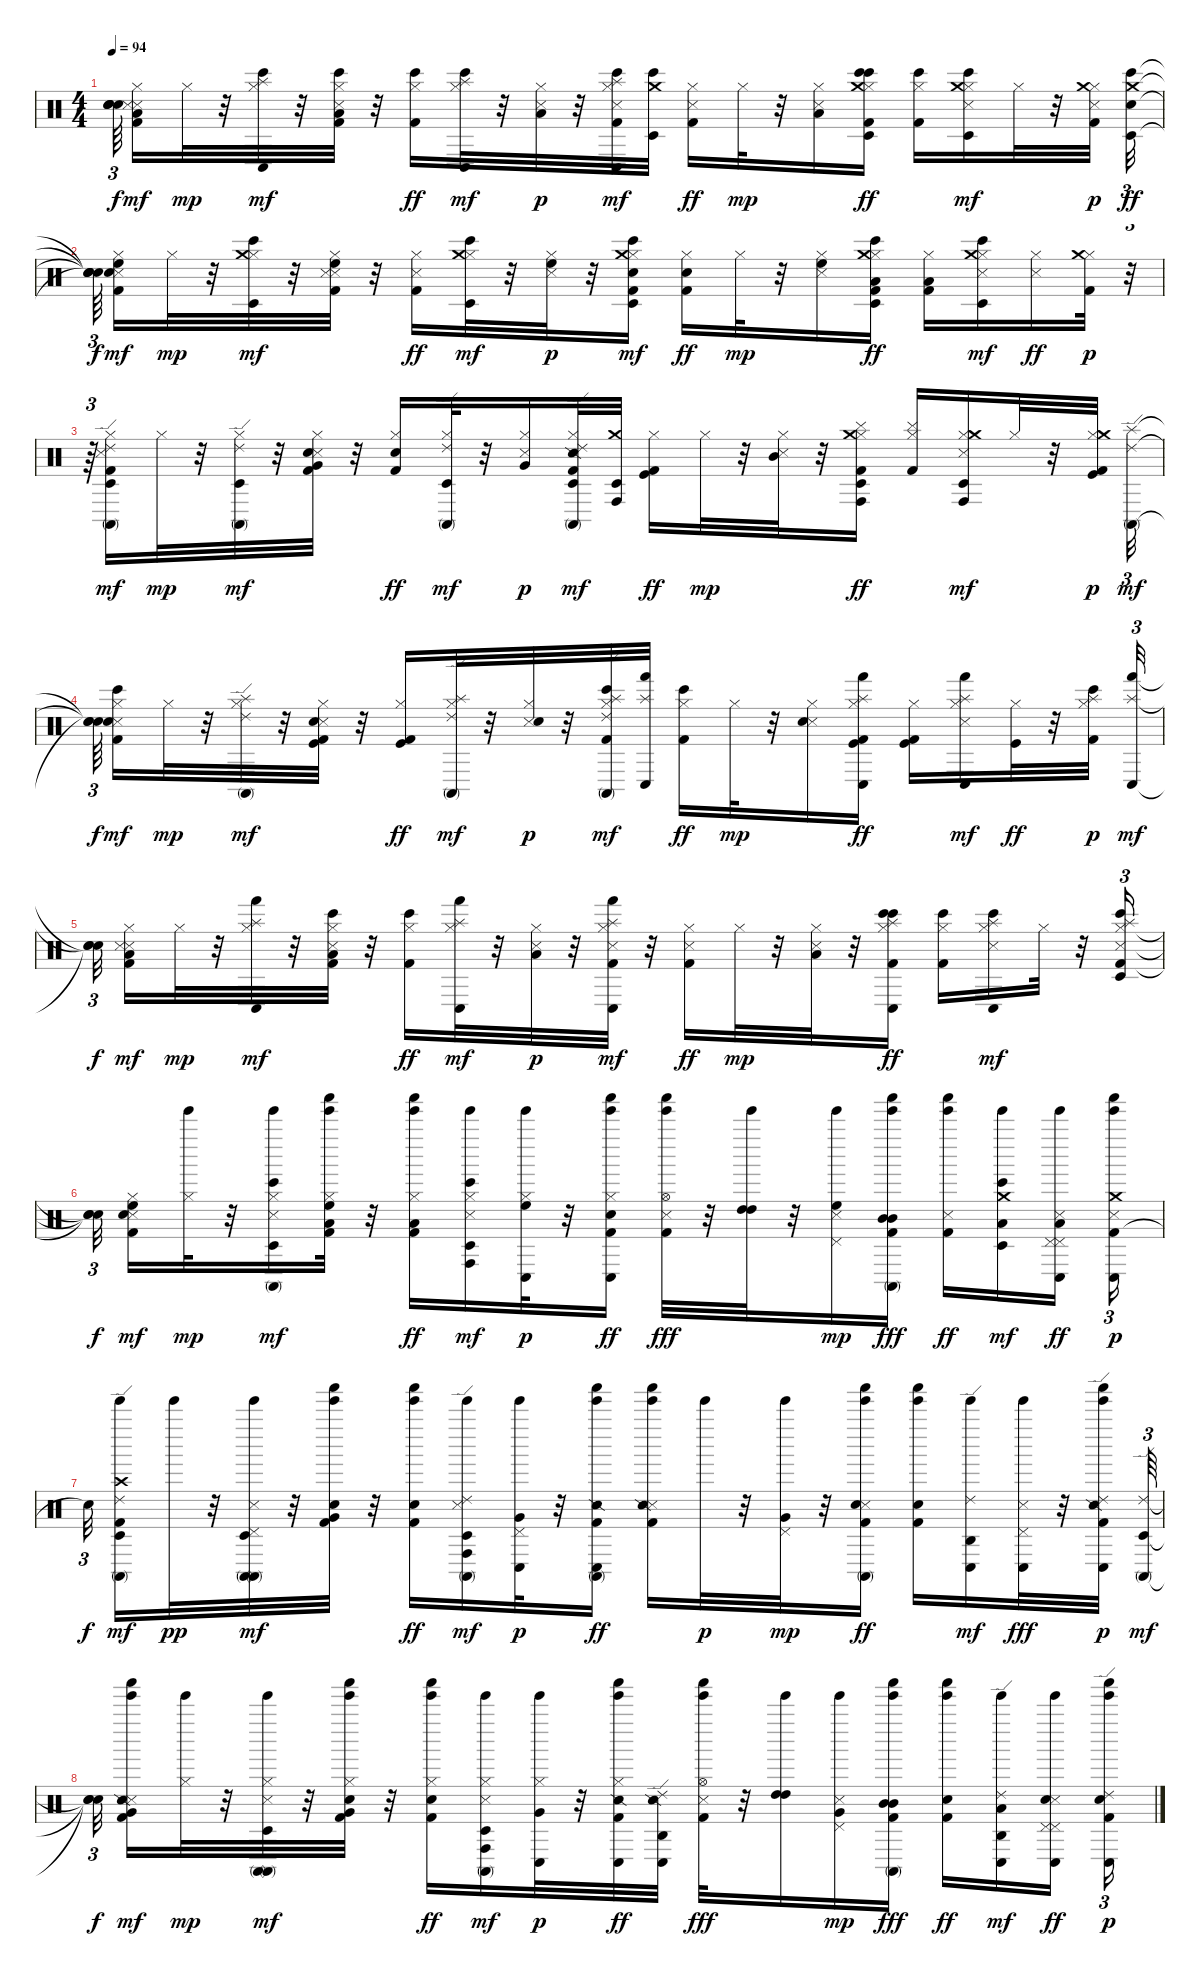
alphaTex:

\track "" {instrument percussion}
\staff {score}
\articulation defaults
\ts (4 4)
\tempo 94
\clef neutral
\ks c
("Snare (hit)"{t} "Snare (hit)"{t} "Snare (hit)"{t} "Snare (hit)"{t}).64{tu (3 2) dy f beam splitsecondary} ("Kick (hit) 2" "Snare (side stick) 3" "Hi-Hat (closed)" "Metronome (hit)" "Low Tom (hit)").16{dy mf} "Hi-Hat (closed)".32{dy mp} r.32 ("Hi-Hat (closed)" "Bongo High (hit)" "Conga low (hit)" "Splash (hit)").32{dy mf} r.32 ("Kick (hit) 2" "Snare (side stick) 3" "Hi-Hat (closed)" "Bongo High (hit)" "Low Tom (hit)").32 r.32 ("Kick (hit) 2" "Hi-Hat (closed)" "Bongo High (hit)").16{dy ff} ("Hi-Hat (closed)" "Conga low (hit)" "Bongo High (hit)" "Splash (hit)").32{dy mf} r.32 ("Snare (side stick) 3" "Hi-Hat (closed)" "Low Tom (hit)").32{dy p} r.32 ("Kick (hit) 2" "Hi-Hat (closed)" "Metronome (hit)" "Bongo High (hit)" "Splash (hit)" "Conga low (hit)").32{dy mf volume 7} ("Bongo High (hit)" "Timbale low (hit)" "Crash medium (hit)").32{volume 6} ("Kick (hit) 2" "Hi-Hat (closed)" "Metronome (hit)").16{dy ff} "Hi-Hat (closed)".32{dy mp} r.32 ("Snare (side stick) 3" "Hi-Hat (closed)" "Low Tom (hit)").16 ("Kick (hit) 2" "Hi-Hat (closed)" "Bongo High (hit)" "Timbale low (hit)" "Crash medium (hit)" "Bongo High (hit)").16{dy ff} ("Kick (hit) 2" "Hi-Hat (closed)" "Bongo High (hit)").16 ("Snare (side stick) 3" "Hi-Hat (closed)" "Bongo High (hit)" "Crash medium (hit)" "Timbale low (hit)").16{dy mf} "Hi-Hat (closed)".32 r.32 ("Kick (hit) 2" "Hi-Hat (closed)" "Metronome (hit)" "Crash medium (hit)").32{dy p volume 7} ("Bongo High (hit)" "Timbale low (hit)" "Crash medium (hit)" "Snare (hit) 2").32{tu (3 2) dy ff volume 6} |
("Snare (hit)"{t} "Snare (hit)"{t} "Snare (hit)"{t} "Snare (hit)"{t}).64{tu (3 2) dy f beam splitsecondary} ("Kick (hit) 2" "Snare (side stick) 3" "Hi-Hat (closed)" "Snare (hit) 2" "High Floor Tom (hit)").16{dy mf} "Hi-Hat (closed)".32{dy mp} r.32 ("Hi-Hat (closed)" "Bongo High (hit)" "Timbale low (hit)" "Crash medium (hit)").32{dy mf} r.32 ("Kick (hit) 2" "Snare (side stick) 3" "Hi-Hat (closed)" "Metronome (hit)" "High Floor Tom (hit)").32 r.32 ("Kick (hit) 2" "Hi-Hat (closed)" "Metronome (hit)").16{dy ff} ("Hi-Hat (closed)" "Timbale low (hit)" "Bongo High (hit)" "Crash medium (hit)").32{dy mf} r.32 ("Snare (side stick) 3" "Hi-Hat (closed)" "High Floor Tom (hit)").32{dy p} r.32 ("Kick (hit) 2" "Hi-Hat (closed)" "Snare (hit) 2" "Bongo High (hit)" "Crash medium (hit)" "Timbale low (hit)").16{dy mf} ("Kick (hit) 2" "Hi-Hat (closed)" "Snare (hit) 2").16{dy ff} "Hi-Hat (closed)".32{dy mp} r.32 ("Snare (side stick) 3" "Hi-Hat (closed)" "High Floor Tom (hit)").16 ("Kick (hit) 2" "Hi-Hat (closed)" "Low Tom (hit)" "Timbale low (hit)" "Crash medium (hit)" "Bongo High (hit)").16{dy ff} ("Kick (hit) 2" "Hi-Hat (closed)" "Low Tom (hit)").16 ("Snare (side stick) 3" "Hi-Hat (closed)" "Bongo High (hit)" "Crash medium (hit)" "Timbale low (hit)").16{dy mf} ("Hi-Hat (closed)" "Metronome (hit)").16{dy ff} ("Kick (hit) 2" "Hi-Hat (closed)" "Crash medium (hit)").32{dy p} r.32{tu (3 2)} |
r.64{tu (3 2)} ("Conga high (mute)" "Timbale low (hit)" "Ride (edge) 2" "Kick (hit) 2" "Snare (side stick) 3" "Hi-Hat (closed)").16{dy mf volume 6} "Hi-Hat (closed)".32{dy mp} r.32 ("Hi-Hat (closed)" "Conga high (mute)" "Timbale low (hit)" "Ride (edge) 2").32{dy mf} r.32 ("Kick (hit) 2" "Snare (side stick) 3" "Hi-Hat (closed)" "Snare (hit) 2" "Very Low Tom (hit)").32 r.32 ("Kick (hit) 2" "Hi-Hat (closed)" "Snare (hit) 2").16{dy ff} ("Hi-Hat (closed)" "Timbale low (hit)" "Conga high (mute)" "Ride (edge) 2").32{dy mf} r.32 ("Snare (side stick) 3" "Hi-Hat (closed)" "Very Low Tom (hit)").16{dy p} ("Kick (hit) 2" "Hi-Hat (closed)" "Snare (side stick) 2" "Conga high (mute)" "Ride (edge) 2" "Timbale low (hit)").32{dy mf} ("Conga high (hit)" "Timbale low (hit)" "Crash medium (hit)").32{volume 6} ("Kick (hit) 2" "Hi-Hat (closed)" "Kick (hit)").16{dy ff} "Hi-Hat (closed)".32{dy mp} r.32 ("Snare (side stick) 3" "Hi-Hat (closed)" "Mid Tom (hit)").32 r.32 ("Kick (hit) 2" "Hi-Hat (closed)" "Cymbal (hit)" "Timbale low (hit)" "Crash medium (hit)" "Conga high (hit)").16{dy ff} ("Kick (hit) 2" "Hi-Hat (closed)" "Cymbal (hit)").16 ("Snare (side stick) 3" "Hi-Hat (closed)" "Conga high (hit)" "Crash medium (hit)" "Timbale low (hit)").16{dy mf} "Hi-Hat (closed)".32 r.32 ("Kick (hit) 2" "Hi-Hat (closed)" "Kick (hit)" "Crash medium (hit)").32{dy p volume 7} ("Ride (edge) 2" "Conga high (mute)" "Splash (hit)").32{tu (3 2) dy mf volume 6} |
("Snare (hit)"{t} "Snare (hit)"{t} "Snare (hit)"{t}).64{tu (3 2) dy f beam splitsecondary} ("Kick (hit) 2" "Snare (side stick) 3" "Hi-Hat (closed)" "Bongo High (hit)" "Electric Snare (hit)").16{dy mf} "Hi-Hat (closed)".32{dy mp} r.32 ("Hi-Hat (closed)" "Ride (edge) 2" "Conga high (mute)" "Splash (hit)").32{dy mf} r.32 ("Kick (hit) 2" "Snare (side stick) 3" "Hi-Hat (closed)" "Kick (hit)" "Electric Snare (hit)").32 r.32 ("Kick (hit) 2" "Hi-Hat (closed)" "Kick (hit)").16{dy ff} ("Hi-Hat (closed)" "Conga high (mute)" "Ride (edge) 2" "Splash (hit)").32{dy mf} r.32 ("Snare (side stick) 3" "Hi-Hat (closed)" "Electric Snare (hit)").32{dy p} r.32 ("Kick (hit) 2" "Hi-Hat (closed)" "Bongo High (hit)" "Ride (edge) 2" "Splash (hit)" "Conga high (mute)").32{dy mf volume 7} ("Hand (hit)" "Conga low (hit)" "Splash (hit)").32{volume 6} ("Kick (hit) 2" "Hi-Hat (closed)" "Bongo High (hit)").16{dy ff} "Hi-Hat (closed)".32{dy mp} r.32 ("Snare (side stick) 3" "Hi-Hat (closed)" "Electric Snare (hit)").16 ("Kick (hit) 2" "Hi-Hat (closed)" "Kick (hit)" "Conga low (hit)" "Splash (hit)" "Hand (hit)").16{dy ff} ("Kick (hit) 2" "Hi-Hat (closed)" "Kick (hit)").16 ("Snare (side stick) 3" "Hi-Hat (closed)" "Hand (hit)" "Splash (hit)" "Conga low (hit)").16{dy mf} ("Hi-Hat (closed)" "Kick (hit)").32{dy ff} r.32 ("Kick (hit) 2" "Hi-Hat (closed)" "Bongo High (hit)" "Splash (hit)").32{dy p volume 7} ("Hand (hit)" "Conga low (hit)" "Splash (hit)").32{tu (3 2) dy mf volume 6} |
("Snare (hit)"{t} "Snare (hit)"{t} "Snare (hit)"{t}).32{tu (3 2) dy f beam splitsecondary} ("Kick (hit) 2" "Snare (side stick) 3" "Hi-Hat (closed)" "Metronome (hit)" "Low Tom (hit)").16{dy mf} "Hi-Hat (closed)".32{dy mp} r.32 ("Hi-Hat (closed)" "Hand (hit)" "Conga low (hit)" "Splash (hit)").32{dy mf} r.32 ("Kick (hit) 2" "Snare (side stick) 3" "Hi-Hat (closed)" "Bongo High (hit)" "Low Tom (hit)").32 r.32 ("Kick (hit) 2" "Hi-Hat (closed)" "Bongo High (hit)").16{dy ff} ("Hi-Hat (closed)" "Conga low (hit)" "Hand (hit)" "Splash (hit)").32{dy mf} r.32 ("Snare (side stick) 3" "Hi-Hat (closed)" "Low Tom (hit)").32{dy p} r.32 ("Kick (hit) 2" "Hi-Hat (closed)" "Metronome (hit)" "Hand (hit)" "Splash (hit)" "Conga low (hit)").32{dy mf volume 7} r.32 ("Kick (hit) 2" "Hi-Hat (closed)" "Metronome (hit)").16{dy ff} "Hi-Hat (closed)".32{dy mp} r.32 ("Snare (side stick) 3" "Hi-Hat (closed)" "Low Tom (hit)").32 r.32 ("Kick (hit) 2" "Hi-Hat (closed)" "Bongo High (hit)" "Conga low (hit)" "Splash (hit)" "Bongo High (hit)").16{dy ff} ("Kick (hit) 2" "Hi-Hat (closed)" "Bongo High (hit)").16 ("Snare (side stick) 3" "Hi-Hat (closed)" "Bongo High (hit)" "Splash (hit)" "Conga low (hit)").16{dy mf} "Hi-Hat (closed)".32 r.32 ("Kick (hit) 2" "Hi-Hat (closed)" "Metronome (hit)" "Splash (hit)" "Bongo High (hit)" "Timbale low (hit)").16{tu (3 2)} |
("Snare (hit)"{t} "Snare (hit)"{t} "Snare (hit)"{t}).32{tu (3 2) dy f beam splitsecondary} ("Kick (hit) 2" "Snare (side stick) 3" "Hi-Hat (closed)" "Snare (hit) 2" "High Floor Tom (hit)").16{dy mf} ("Tinkle Bell (hit)" "Hi-Hat (closed)").32{dy mp} r.32 ("Tinkle Bell (hit)" "Conga high (mute)" "Snare (side stick) 3" "Hi-Hat (closed)" "Bongo High (hit)" "Timbale low (hit)").16{dy mf} ("Kick (hit) 2" "Hi-Hat (closed)" "Tinkle Bell (hit)" "Shaker (hit)" "Low Tom (hit)" "High Floor Tom (hit)").32 r.32 ("Kick (hit) 2" "Hi-Hat (closed)" "Tinkle Bell (hit)" "Shaker (hit)" "Low Tom (hit)").16{dy ff} ("Tinkle Bell (hit)" "Conga high (hit)" "Snare (side stick) 3" "Hi-Hat (closed)" "Timbale low (hit)" "Bongo High (hit)").16{dy mf} ("Tinkle Bell (hit)" "Conga low (hit)" "Hi-Hat (closed)" "High Floor Tom (hit)").32{dy p} r.32 ("Kick (hit) 2" "Conga low (hit)" "Hi-Hat (closed)" "Tinkle Bell (hit)" "Shaker (hit)" "Snare (hit) 2").16{dy ff} ("Kick (hit) 2" "Snare (side stick) 3" "Tinkle Bell (hit)" "Shaker (hit)" "Hi-Hat (open)").32{dy fff} r.32 ("Tinkle Bell (hit)" "High Tom (hit)" "High Tom (hit)").32 r.32 ("Tinkle Bell (hit)" "Pedal Hi-Hat (hit)" "Snare (side stick) 3" "High Floor Tom (hit)").16{dy mp} ("Conga high (mute)" "Kick (hit) 2" "Tinkle Bell (hit)" "Shaker (hit)" "Mid Tom (hit)" "Mid Tom (hit)").16{dy fff} ("Kick (hit) 2" "Tinkle Bell (hit)" "Shaker (hit)" "Metronome (hit)").16{dy ff} ("Tinkle Bell (hit)" "Low Tom (hit)" "Bongo High (hit)" "Crash medium (hit)" "Timbale low (hit)").16{dy mf} ("Tinkle Bell (hit)" "Conga low (hit)" "Pedal Hi-Hat (hit)" "Snare (side stick) 3" "Pedal Hi-Hat (hit)" "Low Tom (hit)").16{dy ff beam splitsecondary} ("Kick (hit) 2" "Tinkle Bell (hit)" "Shaker (hit)" "Conga low (hit)" "Metronome (hit)" "Crash medium (hit)").16{tu (3 2) dy p volume 7} |
"Snare (hit)"{t}.32{tu (3 2) dy f beam splitsecondary} ("Conga high (mute)" "Timbale low (hit)" "Ride (edge) 2" "Crash high (hit)" "Kick (hit) 2" "Tinkle Bell (hit)").16{dy mf volume 6} "Tinkle Bell (hit)".32{dy pp} r.32 ("Tinkle Bell (hit)" "Conga high (mute)" "Snare (side stick) 3" "Pedal Hi-Hat (hit)" "Conga high (mute)" "Timbale low (hit)").32{dy mf} r.32 ("Kick (hit) 2" "Tinkle Bell (hit)" "Shaker (hit)" "Snare (hit) 2" "Very Low Tom (hit)").32 r.32 ("Kick (hit) 2" "Tinkle Bell (hit)" "Shaker (hit)" "Snare (hit) 2").16{dy ff} ("Tinkle Bell (hit)" "Conga high (hit)" "Snare (side stick) 3" "Timbale low (hit)" "Conga high (mute)" "Ride (edge) 2").16{dy mf} ("Tinkle Bell (hit)" "Conga low (hit)" "Pedal Hi-Hat (hit)" "Very Low Tom (hit)").32{dy p} r.32 ("Kick (hit) 2" "Tinkle Bell (hit)" "Shaker (hit)" "Conga low (hit)" "Snare (side stick) 2" "Conga high (mute)").16{dy ff volume 7} ("Kick (hit) 2" "Tinkle Bell (hit)" "Shaker (hit)" "Snare (side stick) 3" "Snare (side stick) 2").16 "Tinkle Bell (hit)".32{dy p} r.32 ("Tinkle Bell (hit)" "Pedal Hi-Hat (hit)" "Very Low Tom (hit)").32{dy mp} r.32 ("Conga high (mute)" "Kick (hit) 2" "Tinkle Bell (hit)" "Shaker (hit)" "Snare (side stick) 3" "Snare (hit) 2").16{dy ff} ("Kick (hit) 2" "Tinkle Bell (hit)" "Shaker (hit)" "Snare (hit) 2").16 ("Tinkle Bell (hit)" "Conga low (hit)" "Ride (edge) 2" "Agogo high (hit)").16{dy mf} ("Tinkle Bell (hit)" "Conga low (hit)" "Snare (side stick) 3" "Pedal Hi-Hat (hit)").32{dy fff} r.32 ("Kick (hit) 2" "Tinkle Bell (hit)" "Shaker (hit)" "Conga low (hit)" "Snare (side stick) 2" "Ride (edge) 2").32{dy p volume 7} ("Conga high (mute)" "Timbale low (hit)" "Ride (edge) 2").64{tu (3 2) dy mf volume 6} |
("Snare (hit)"{t} "Snare (hit)"{t} "Snare (hit)"{t}).32{tu (3 2) dy f beam splitsecondary} ("Kick (hit) 2" "Tinkle Bell (hit)" "Shaker (hit)" "Snare (side stick) 3" "Snare (side stick) 2" "Very Low Tom (hit)").16{dy mf} ("Tinkle Bell (hit)" "Hi-Hat (closed)").32{dy mp} r.32 ("Tinkle Bell (hit)" "Conga high (mute)" "Snare (side stick) 3" "Hi-Hat (closed)" "Conga high (mute)" "Timbale low (hit)").32{dy mf} r.32 ("Kick (hit) 2" "Hi-Hat (closed)" "Tinkle Bell (hit)" "Shaker (hit)" "Snare (hit) 2" "Very Low Tom (hit)").32 r.32 ("Kick (hit) 2" "Hi-Hat (closed)" "Tinkle Bell (hit)" "Shaker (hit)" "Snare (hit) 2").16{dy ff} ("Tinkle Bell (hit)" "Conga high (hit)" "Snare (side stick) 3" "Hi-Hat (closed)" "Timbale low (hit)" "Conga high (mute)").16{dy mf} ("Tinkle Bell (hit)" "Conga low (hit)" "Hi-Hat (closed)" "Very Low Tom (hit)").32{dy p} r.32 ("Kick (hit) 2" "Conga low (hit)" "Hi-Hat (closed)" "Tinkle Bell (hit)" "Shaker (hit)" "Snare (side stick) 2").32{dy ff} ("Conga low (hit)" "Agogo high (hit)" "Ride (edge) 2" "Snare (side stick) 2").32{volume 6} ("Kick (hit) 2" "Snare (side stick) 3" "Tinkle Bell (hit)" "Shaker (hit)" "Hi-Hat (open)").32{dy fff} r.32 ("Tinkle Bell (hit)" "High Tom (hit)" "High Tom (hit)").16 ("Tinkle Bell (hit)" "Pedal Hi-Hat (hit)" "Snare (side stick) 3" "Very Low Tom (hit)").16{dy mp} ("Conga high (mute)" "Kick (hit) 2" "Tinkle Bell (hit)" "Shaker (hit)" "Mid Tom (hit)" "Mid Tom (hit)").16{dy fff} ("Kick (hit) 2" "Tinkle Bell (hit)" "Shaker (hit)" "Snare (hit) 2").16{dy ff} ("Tinkle Bell (hit)" "Low Tom (hit)" "Conga low (hit)" "Ride (edge) 2" "Agogo high (hit)").16{dy mf} ("Tinkle Bell (hit)" "Conga low (hit)" "Pedal Hi-Hat (hit)" "Snare (side stick) 3" "Pedal Hi-Hat (hit)" "Snare (hit) 2").16{dy ff beam splitsecondary} ("Kick (hit) 2" "Tinkle Bell (hit)" "Shaker (hit)" "Conga low (hit)" "Snare (hit) 2" "Ride (edge) 2").16{tu (3 2) dy p volume 7}
